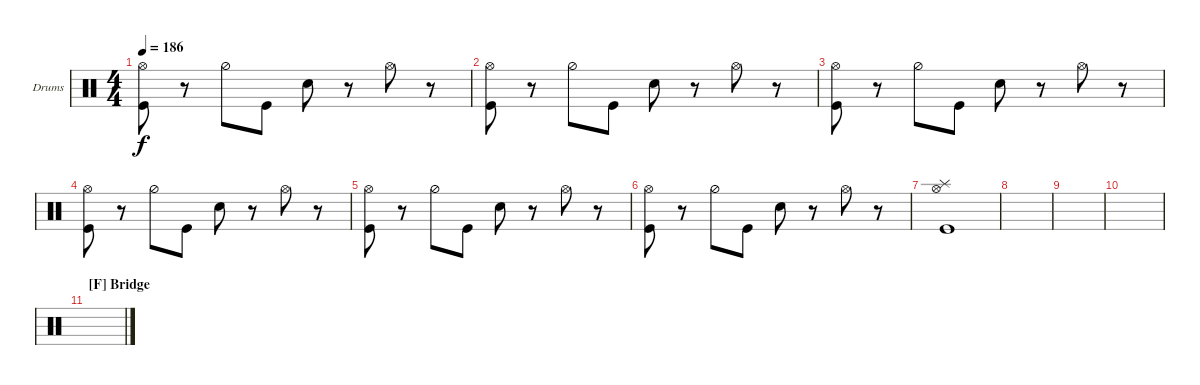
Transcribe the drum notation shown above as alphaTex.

\defaultSystemsLayout 4
\bracketExtendMode groupsimilarinstruments
\firstSystemTrackNameOrientation horizontal
\otherSystemsTrackNameOrientation horizontal
\track ("Drumkit" "Drums") {instrument percussion}
\staff {score}
\articulation defaults
\ts (4 4)
\tempo 186
\clef neutral
\ks c
("Hi-Hat (open)" "Kick (hit)").8{dy f} r.8 "Hi-Hat (half)".8 "Kick (hit)".8 "Snare (hit) 2".8 r.8 "Hi-Hat (open)".8 r.8 |
("Hi-Hat (open)" "Kick (hit)").8 r.8 "Hi-Hat (half)".8 "Kick (hit)".8 "Snare (hit) 2".8 r.8 "Hi-Hat (open)".8 r.8 |
("Hi-Hat (open)" "Kick (hit)").8 r.8 "Hi-Hat (half)".8 "Kick (hit)".8 "Snare (hit) 2".8 r.8 "Hi-Hat (open)".8 r.8 |
("Hi-Hat (open)" "Kick (hit)").8 r.8 "Hi-Hat (half)".8 "Kick (hit)".8 "Snare (hit) 2".8 r.8 "Hi-Hat (open)".8 r.8 |
("Hi-Hat (open)" "Kick (hit)").8 r.8 "Hi-Hat (half)".8 "Kick (hit)".8 "Snare (hit) 2".8 r.8 "Hi-Hat (open)".8 r.8 |
("Hi-Hat (open)" "Kick (hit)").8 r.8 "Hi-Hat (half)".8 "Kick (hit)".8 "Snare (hit) 2".8 r.8 "Hi-Hat (open)".8 r.8 |
("Hi-Hat (open)" "Kick (hit)" "Splash (hit)").1 |
|
|
|
\section ("F" "Bridge")
